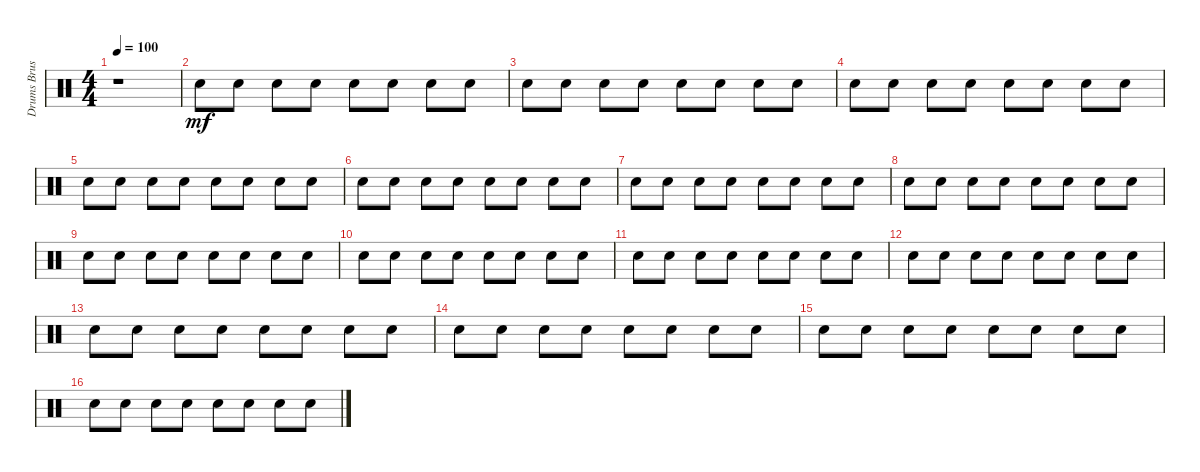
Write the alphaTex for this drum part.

\track ("Drums Brush Set" "Drums Brus") {instrument percussion}
\staff {score}
\articulation defaults
\ts (4 4)
\tempo 100
\clef neutral
\ks c
r.1{dy mf} |
"Snare (hit) 2".8 "Snare (hit) 2".8 "Hand Clap (hit)".8 "Snare (hit) 2".8 "Snare (hit) 2".8 "Snare (hit) 2".8 "Hand Clap (hit)".8 "Snare (hit) 2".8 |
"Snare (hit) 2".8 "Snare (hit) 2".8 "Hand Clap (hit)".8 "Snare (hit) 2".8 "Snare (hit) 2".8 "Snare (hit) 2".8 "Hand Clap (hit)".8 "Snare (hit) 2".8 |
"Snare (hit) 2".8 "Snare (hit) 2".8 "Hand Clap (hit)".8 "Snare (hit) 2".8 "Snare (hit) 2".8 "Snare (hit) 2".8 "Hand Clap (hit)".8 "Snare (hit) 2".8 |
"Snare (hit) 2".8 "Snare (hit) 2".8 "Hand Clap (hit)".8 "Snare (hit) 2".8 "Snare (hit) 2".8 "Snare (hit) 2".8 "Hand Clap (hit)".8 "Snare (hit) 2".8 |
"Snare (hit) 2".8 "Snare (hit) 2".8 "Hand Clap (hit)".8 "Snare (hit) 2".8 "Snare (hit) 2".8 "Snare (hit) 2".8 "Hand Clap (hit)".8 "Snare (hit) 2".8 |
"Snare (hit) 2".8 "Snare (hit) 2".8 "Hand Clap (hit)".8 "Snare (hit) 2".8 "Snare (hit) 2".8 "Snare (hit) 2".8 "Hand Clap (hit)".8 "Snare (hit) 2".8 |
"Snare (hit) 2".8 "Snare (hit) 2".8 "Hand Clap (hit)".8 "Snare (hit) 2".8 "Snare (hit) 2".8 "Snare (hit) 2".8 "Hand Clap (hit)".8 "Snare (hit) 2".8 |
"Snare (hit) 2".8 "Snare (hit) 2".8 "Hand Clap (hit)".8 "Snare (hit) 2".8 "Snare (hit) 2".8 "Snare (hit) 2".8 "Hand Clap (hit)".8 "Snare (hit) 2".8 |
"Snare (hit) 2".8 "Snare (hit) 2".8 "Hand Clap (hit)".8 "Snare (hit) 2".8 "Snare (hit) 2".8 "Snare (hit) 2".8 "Hand Clap (hit)".8 "Snare (hit) 2".8 |
"Snare (hit) 2".8 "Snare (hit) 2".8 "Hand Clap (hit)".8 "Snare (hit) 2".8 "Snare (hit) 2".8 "Snare (hit) 2".8 "Hand Clap (hit)".8 "Snare (hit) 2".8 |
"Snare (hit) 2".8 "Snare (hit) 2".8 "Hand Clap (hit)".8 "Snare (hit) 2".8 "Snare (hit) 2".8 "Snare (hit) 2".8 "Hand Clap (hit)".8 "Snare (hit) 2".8 |
"Snare (hit) 2".8 "Snare (hit) 2".8 "Hand Clap (hit)".8 "Snare (hit) 2".8 "Snare (hit) 2".8 "Snare (hit) 2".8 "Hand Clap (hit)".8 "Snare (hit) 2".8 |
"Snare (hit) 2".8 "Snare (hit) 2".8 "Hand Clap (hit)".8 "Snare (hit) 2".8 "Snare (hit) 2".8 "Snare (hit) 2".8 "Hand Clap (hit)".8 "Snare (hit) 2".8 |
"Snare (hit) 2".8 "Snare (hit) 2".8 "Hand Clap (hit)".8 "Snare (hit) 2".8 "Snare (hit) 2".8 "Snare (hit) 2".8 "Hand Clap (hit)".8 "Snare (hit) 2".8 |
"Snare (hit) 2".8 "Snare (hit) 2".8 "Hand Clap (hit)".8 "Snare (hit) 2".8 "Snare (hit) 2".8 "Snare (hit) 2".8 "Hand Clap (hit)".8 "Snare (hit) 2".8
